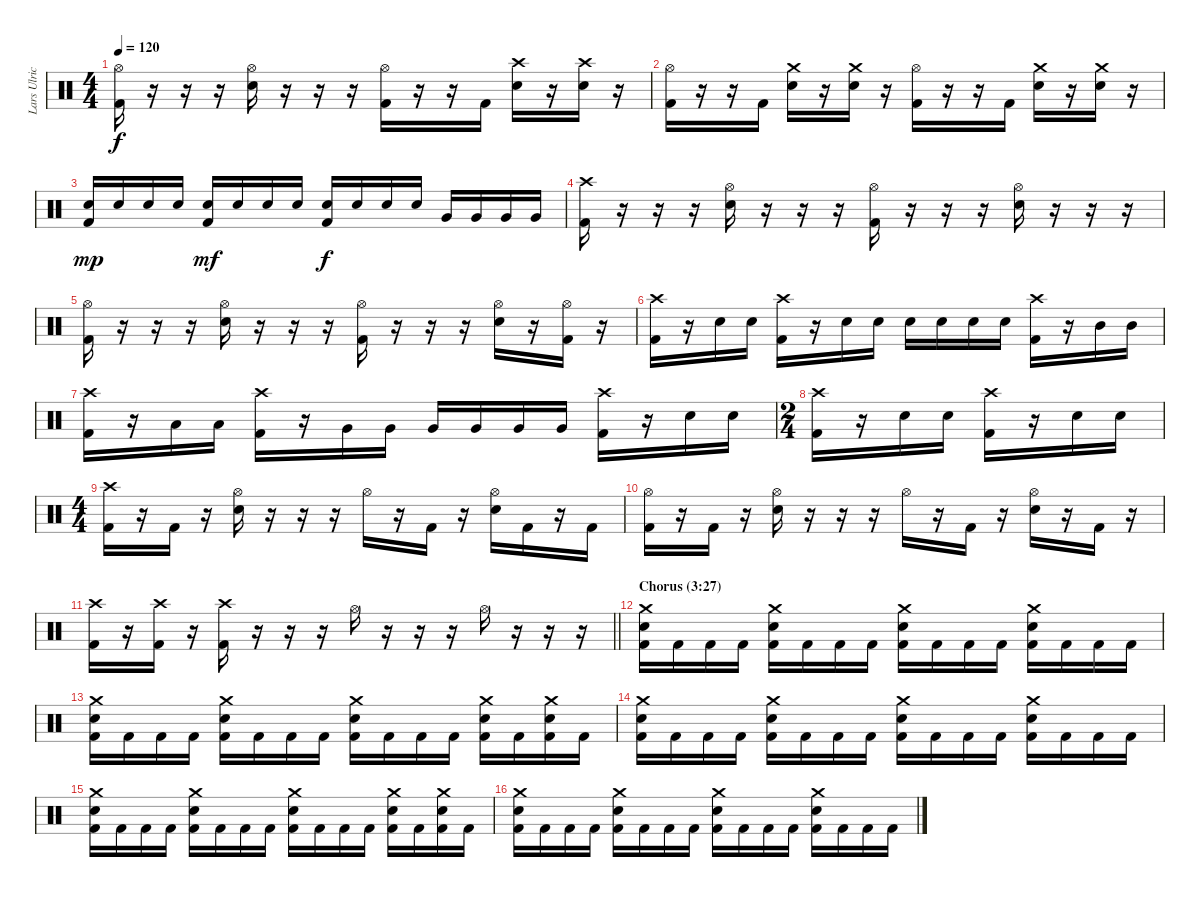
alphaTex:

\track ("Lars Ulrich" "Lars Ulric") {instrument percussion}
\staff {score}
\articulation defaults
\ts (4 4)
\tempo 120
\clef neutral
\ks c
("Hi-Hat (open)" "Kick (hit) 2").16{dy f} r.16 r.16 r.16 ("Electric Snare (hit)" "Hi-Hat (open)").16 r.16 r.16 r.16 ("Hi-Hat (open)" "Kick (hit) 2").16 r.16 r.16 "Kick (hit) 2".16 ("Crash high (hit)" "Electric Snare (hit)").16 r.16 ("Crash high (hit)" "Electric Snare (hit)").16 r.16 |
("Hi-Hat (open)" "Kick (hit) 2").16 r.16 r.16 "Kick (hit) 2".16 ("Electric Snare (hit)" "Crash medium (hit)").16 r.16 ("Electric Snare (hit)" "Crash medium (hit)").16 r.16 ("Hi-Hat (open)" "Kick (hit) 2").16 r.16 r.16 "Kick (hit) 2".16 ("Electric Snare (hit)" "Crash medium (hit)").16 r.16 ("Electric Snare (hit)" "Crash medium (hit)").16 r.16 |
("Electric Snare (hit)" "Kick (hit) 2").16{dy mp} "Electric Snare (hit)".16 "Electric Snare (hit)".16 "Electric Snare (hit)".16 ("Electric Snare (hit)" "Kick (hit) 2").16{dy mf} "Electric Snare (hit)".16 "Electric Snare (hit)".16 "Electric Snare (hit)".16 ("Electric Snare (hit)" "Kick (hit) 2").16{dy f} "Electric Snare (hit)".16 "Electric Snare (hit)".16 "Electric Snare (hit)".16 "Very Low Tom (hit)".16 "Very Low Tom (hit)".16 "Very Low Tom (hit)".16 "Very Low Tom (hit)".16 |
("Crash high (hit)" "Kick (hit) 2").16 r.16 r.16 r.16 ("Electric Snare (hit)" "Hi-Hat (open)").16 r.16 r.16 r.16 ("Hi-Hat (open)" "Kick (hit) 2").16 r.16 r.16 r.16 ("Electric Snare (hit)" "Hi-Hat (open)").16 r.16 r.16 r.16 |
("Hi-Hat (open)" "Kick (hit) 2").16 r.16 r.16 r.16 ("Electric Snare (hit)" "Hi-Hat (open)").16 r.16 r.16 r.16 ("Hi-Hat (open)" "Kick (hit) 2").16 r.16 r.16 r.16 ("Electric Snare (hit)" "Hi-Hat (open)").16 r.16 ("Hi-Hat (open)" "Kick (hit) 2").16 r.16 |
("Crash high (hit)" "Kick (hit) 2").16 r.16 "Electric Snare (hit)".16 "Electric Snare (hit)".16 ("Crash high (hit)" "Kick (hit) 2").16 r.16 "Electric Snare (hit)".16 "Electric Snare (hit)".16 "Electric Snare (hit)".16 "Electric Snare (hit)".16 "Electric Snare (hit)".16 "Electric Snare (hit)".16 ("Crash high (hit)" "Kick (hit) 2").16 r.16 "Mid Tom (hit)".16 "Mid Tom (hit)".16 |
("Crash high (hit)" "Kick (hit) 2").16 r.16 "Low Tom (hit)".16 "Low Tom (hit)".16 ("Crash high (hit)" "Kick (hit) 2").16 r.16 "Very Low Tom (hit)".16 "Very Low Tom (hit)".16 "Very Low Tom (hit)".16 "Very Low Tom (hit)".16 "Very Low Tom (hit)".16 "Very Low Tom (hit)".16 ("Crash high (hit)" "Kick (hit) 2").16 r.16 "Electric Snare (hit)".16 "Electric Snare (hit)".16 |
\ts (2 4)
("Crash high (hit)" "Kick (hit) 2").16 r.16 "Electric Snare (hit)".16 "Electric Snare (hit)".16 ("Crash high (hit)" "Kick (hit) 2").16 r.16 "Electric Snare (hit)".16 "Electric Snare (hit)".16 |
\ts (4 4)
("Crash high (hit)" "Kick (hit) 2").16 r.16 "Kick (hit) 2".16 r.16 ("Electric Snare (hit)" "Hi-Hat (open)").16 r.16 r.16 r.16 "Hi-Hat (open)".16 r.16 "Kick (hit) 2".16 r.16 ("Electric Snare (hit)" "Hi-Hat (open)").16 "Kick (hit) 2".16 r.16 "Kick (hit) 2".16 |
("Hi-Hat (open)" "Kick (hit) 2").16 r.16 "Kick (hit) 2".16 r.16 ("Electric Snare (hit)" "Hi-Hat (open)").16 r.16 r.16 r.16 "Hi-Hat (open)".16 r.16 "Kick (hit) 2".16 r.16 ("Electric Snare (hit)" "Hi-Hat (open)").16 r.16 "Kick (hit) 2".16 r.16 |
\barLineRight lightlight
("Crash high (hit)" "Kick (hit) 2").16 r.16 ("Crash high (hit)" "Kick (hit) 2").16 r.16 ("Crash high (hit)" "Kick (hit) 2").16 r.16 r.16 r.16 "Hi-Hat (open)".16 r.16 r.16 r.16 "Hi-Hat (open)".16 r.16 r.16 r.16 |
\section ("" "Chorus (3:27)")
("Electric Snare (hit)" "Crash medium (hit)" "Kick (hit) 2").16 "Kick (hit) 2".16 "Kick (hit) 2".16 "Kick (hit) 2".16 ("Electric Snare (hit)" "Crash medium (hit)" "Kick (hit) 2").16 "Kick (hit) 2".16 "Kick (hit) 2".16 "Kick (hit) 2".16 ("Electric Snare (hit)" "Crash medium (hit)" "Kick (hit) 2").16 "Kick (hit) 2".16 "Kick (hit) 2".16 "Kick (hit) 2".16 ("Electric Snare (hit)" "Crash medium (hit)" "Kick (hit) 2").16 "Kick (hit) 2".16 "Kick (hit) 2".16 "Kick (hit) 2".16 |
("Electric Snare (hit)" "Crash medium (hit)" "Kick (hit) 2").16 "Kick (hit) 2".16 "Kick (hit) 2".16 "Kick (hit) 2".16 ("Electric Snare (hit)" "Crash medium (hit)" "Kick (hit) 2").16 "Kick (hit) 2".16 "Kick (hit) 2".16 "Kick (hit) 2".16 ("Electric Snare (hit)" "Crash medium (hit)" "Kick (hit) 2").16 "Kick (hit) 2".16 "Kick (hit) 2".16 "Kick (hit) 2".16 ("Electric Snare (hit)" "Crash medium (hit)" "Kick (hit) 2").16 "Kick (hit) 2".16 ("Electric Snare (hit)" "Crash medium (hit)" "Kick (hit) 2").16 "Kick (hit) 2".16 |
("Electric Snare (hit)" "Crash medium (hit)" "Kick (hit) 2").16 "Kick (hit) 2".16 "Kick (hit) 2".16 "Kick (hit) 2".16 ("Electric Snare (hit)" "Crash medium (hit)" "Kick (hit) 2").16 "Kick (hit) 2".16 "Kick (hit) 2".16 "Kick (hit) 2".16 ("Electric Snare (hit)" "Crash medium (hit)" "Kick (hit) 2").16 "Kick (hit) 2".16 "Kick (hit) 2".16 "Kick (hit) 2".16 ("Electric Snare (hit)" "Crash medium (hit)" "Kick (hit) 2").16 "Kick (hit) 2".16 "Kick (hit) 2".16 "Kick (hit) 2".16 |
("Electric Snare (hit)" "Crash medium (hit)" "Kick (hit) 2").16 "Kick (hit) 2".16 "Kick (hit) 2".16 "Kick (hit) 2".16 ("Electric Snare (hit)" "Crash medium (hit)" "Kick (hit) 2").16 "Kick (hit) 2".16 "Kick (hit) 2".16 "Kick (hit) 2".16 ("Electric Snare (hit)" "Crash medium (hit)" "Kick (hit) 2").16 "Kick (hit) 2".16 "Kick (hit) 2".16 "Kick (hit) 2".16 ("Electric Snare (hit)" "Crash medium (hit)" "Kick (hit) 2").16 "Kick (hit) 2".16 ("Electric Snare (hit)" "Crash medium (hit)" "Kick (hit) 2").16 "Kick (hit) 2".16 |
("Electric Snare (hit)" "Crash medium (hit)" "Kick (hit) 2").16 "Kick (hit) 2".16 "Kick (hit) 2".16 "Kick (hit) 2".16 ("Electric Snare (hit)" "Crash medium (hit)" "Kick (hit) 2").16 "Kick (hit) 2".16 "Kick (hit) 2".16 "Kick (hit) 2".16 ("Electric Snare (hit)" "Crash medium (hit)" "Kick (hit) 2").16 "Kick (hit) 2".16 "Kick (hit) 2".16 "Kick (hit) 2".16 ("Electric Snare (hit)" "Crash medium (hit)" "Kick (hit) 2").16 "Kick (hit) 2".16 "Kick (hit) 2".16 "Kick (hit) 2".16
